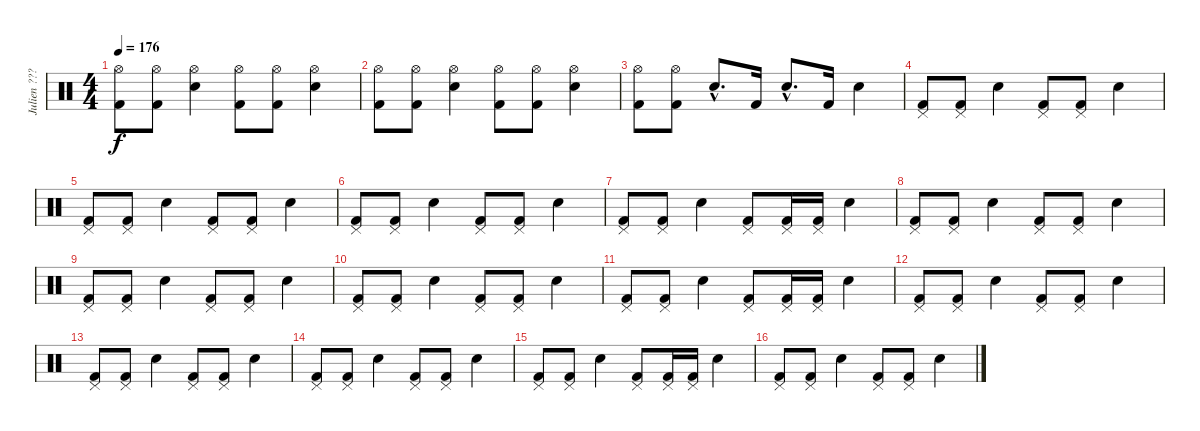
\track ("Julien ??? (Drum)" "Julien ???") {instrument percussion}
\staff {score}
\articulation defaults
\ts (4 4)
\tempo 176
\clef neutral
\ks c
("Hi-Hat (open)" "Kick (hit) 2").8{dy f} ("Hi-Hat (open)" "Kick (hit) 2").8 ("Hi-Hat (open)" "Electric Snare (hit)").4 ("Hi-Hat (open)" "Kick (hit) 2").8 ("Hi-Hat (open)" "Kick (hit) 2").8 ("Hi-Hat (open)" "Electric Snare (hit)").4 |
("Hi-Hat (open)" "Kick (hit) 2").8 ("Hi-Hat (open)" "Kick (hit) 2").8 ("Hi-Hat (open)" "Electric Snare (hit)").4 ("Hi-Hat (open)" "Kick (hit) 2").8 ("Hi-Hat (open)" "Kick (hit) 2").8 ("Hi-Hat (open)" "Electric Snare (hit)").4 |
("Hi-Hat (open)" "Kick (hit) 2").8 ("Hi-Hat (open)" "Kick (hit) 2").8 "Electric Snare (hit)"{hac}.8{d} "Kick (hit) 2".16 "Electric Snare (hit)"{hac}.8{d} "Kick (hit) 2".16 "Electric Snare (hit)".4 |
("Pedal Hi-Hat (hit)" "Kick (hit) 2").8 ("Pedal Hi-Hat (hit)" "Kick (hit) 2").8 "Electric Snare (hit)".4 ("Pedal Hi-Hat (hit)" "Kick (hit) 2").8 ("Pedal Hi-Hat (hit)" "Kick (hit) 2").8 "Electric Snare (hit)".4 |
("Pedal Hi-Hat (hit)" "Kick (hit) 2").8 ("Pedal Hi-Hat (hit)" "Kick (hit) 2").8 "Electric Snare (hit)".4 ("Pedal Hi-Hat (hit)" "Kick (hit) 2").8 ("Pedal Hi-Hat (hit)" "Kick (hit) 2").8 "Electric Snare (hit)".4 |
("Pedal Hi-Hat (hit)" "Kick (hit) 2").8 ("Pedal Hi-Hat (hit)" "Kick (hit) 2").8 "Electric Snare (hit)".4 ("Pedal Hi-Hat (hit)" "Kick (hit) 2").8 ("Pedal Hi-Hat (hit)" "Kick (hit) 2").8 "Electric Snare (hit)".4 |
("Pedal Hi-Hat (hit)" "Kick (hit) 2").8 ("Pedal Hi-Hat (hit)" "Kick (hit) 2").8 "Electric Snare (hit)".4 ("Pedal Hi-Hat (hit)" "Kick (hit) 2").8 ("Pedal Hi-Hat (hit)" "Kick (hit) 2").16 ("Pedal Hi-Hat (hit)" "Kick (hit) 2").16 "Electric Snare (hit)".4 |
("Pedal Hi-Hat (hit)" "Kick (hit) 2").8 ("Pedal Hi-Hat (hit)" "Kick (hit) 2").8 "Electric Snare (hit)".4 ("Pedal Hi-Hat (hit)" "Kick (hit) 2").8 ("Pedal Hi-Hat (hit)" "Kick (hit) 2").8 "Electric Snare (hit)".4 |
("Pedal Hi-Hat (hit)" "Kick (hit) 2").8 ("Pedal Hi-Hat (hit)" "Kick (hit) 2").8 "Electric Snare (hit)".4 ("Pedal Hi-Hat (hit)" "Kick (hit) 2").8 ("Pedal Hi-Hat (hit)" "Kick (hit) 2").8 "Electric Snare (hit)".4 |
("Pedal Hi-Hat (hit)" "Kick (hit) 2").8 ("Pedal Hi-Hat (hit)" "Kick (hit) 2").8 "Electric Snare (hit)".4 ("Pedal Hi-Hat (hit)" "Kick (hit) 2").8 ("Pedal Hi-Hat (hit)" "Kick (hit) 2").8 "Electric Snare (hit)".4 |
("Pedal Hi-Hat (hit)" "Kick (hit) 2").8 ("Pedal Hi-Hat (hit)" "Kick (hit) 2").8 "Electric Snare (hit)".4 ("Pedal Hi-Hat (hit)" "Kick (hit) 2").8 ("Pedal Hi-Hat (hit)" "Kick (hit) 2").16 ("Pedal Hi-Hat (hit)" "Kick (hit) 2").16 "Electric Snare (hit)".4 |
("Pedal Hi-Hat (hit)" "Kick (hit) 2").8 ("Pedal Hi-Hat (hit)" "Kick (hit) 2").8 "Electric Snare (hit)".4 ("Pedal Hi-Hat (hit)" "Kick (hit) 2").8 ("Pedal Hi-Hat (hit)" "Kick (hit) 2").8 "Electric Snare (hit)".4 |
("Pedal Hi-Hat (hit)" "Kick (hit) 2").8 ("Pedal Hi-Hat (hit)" "Kick (hit) 2").8 "Electric Snare (hit)".4 ("Pedal Hi-Hat (hit)" "Kick (hit) 2").8 ("Pedal Hi-Hat (hit)" "Kick (hit) 2").8 "Electric Snare (hit)".4 |
("Pedal Hi-Hat (hit)" "Kick (hit) 2").8 ("Pedal Hi-Hat (hit)" "Kick (hit) 2").8 "Electric Snare (hit)".4 ("Pedal Hi-Hat (hit)" "Kick (hit) 2").8 ("Pedal Hi-Hat (hit)" "Kick (hit) 2").8 "Electric Snare (hit)".4 |
("Pedal Hi-Hat (hit)" "Kick (hit) 2").8 ("Pedal Hi-Hat (hit)" "Kick (hit) 2").8 "Electric Snare (hit)".4 ("Pedal Hi-Hat (hit)" "Kick (hit) 2").8 ("Pedal Hi-Hat (hit)" "Kick (hit) 2").16 ("Pedal Hi-Hat (hit)" "Kick (hit) 2").16 "Electric Snare (hit)".4 |
("Pedal Hi-Hat (hit)" "Kick (hit) 2").8 ("Pedal Hi-Hat (hit)" "Kick (hit) 2").8 "Electric Snare (hit)".4 ("Pedal Hi-Hat (hit)" "Kick (hit) 2").8 ("Pedal Hi-Hat (hit)" "Kick (hit) 2").8 "Electric Snare (hit)".4
